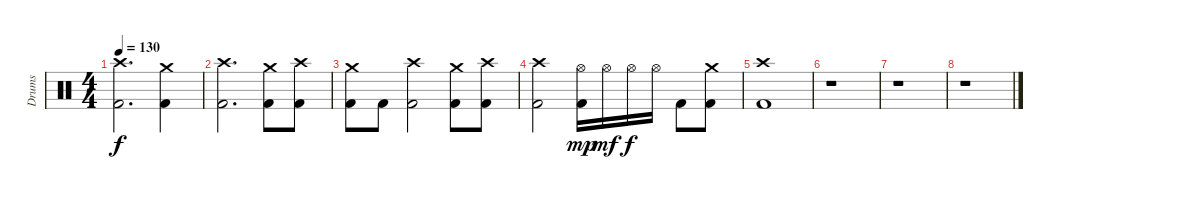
\track ("Drums" "Drums") {instrument percussion}
\staff {score}
\articulation defaults
\ts (4 4)
\tempo 130
\clef neutral
\ks c
("Crash high (hit)" "Kick (hit) 2").2{d dy f} ("Crash medium (hit)" "Kick (hit) 2").4 |
("Crash high (hit)" "Kick (hit) 2").2{d} ("Crash medium (hit)" "Kick (hit) 2").8 ("Crash high (hit)" "Kick (hit) 2").8 |
("Crash medium (hit)" "Kick (hit) 2").8 "Kick (hit) 2".8 ("Crash high (hit)" "Kick (hit) 2").2 ("Crash medium (hit)" "Kick (hit) 2").8 ("Crash high (hit)" "Kick (hit) 2").8 |
("Crash high (hit)" "Kick (hit) 2").2 ("Hi-Hat (open)" "Kick (hit) 2").16{dy mp} "Hi-Hat (open)".16{dy mf} "Hi-Hat (open)".16{dy f} "Hi-Hat (open)".16 "Kick (hit) 2".8 ("Crash medium (hit)" "Kick (hit) 2").8 |
("Crash high (hit)" "Kick (hit) 2").1 |
r.1 |
r.1 |
r.1
